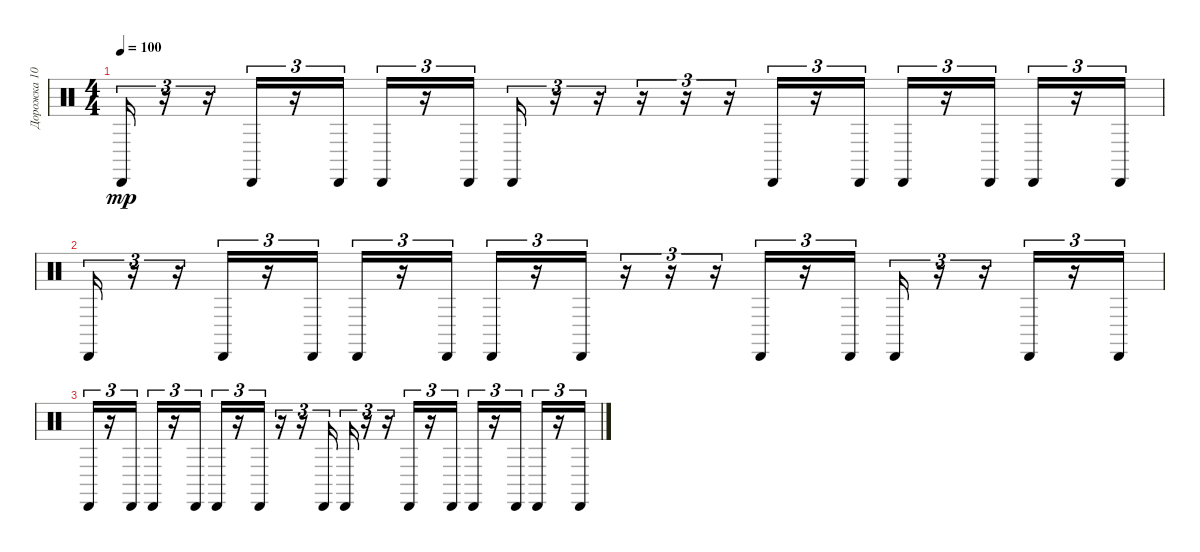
\track ("Дорожка 10" "Дорожка 10") {instrument percussion}
\staff {score}
\articulation defaults
\ts (4 4)
\tempo 100
\clef neutral
\ks c "Cabasa (hit)".16{tu (3 2) dy mp}
r.16{tu (3 2)} r.16{tu (3 2)} "Cabasa (hit)".16{tu (3 2)} r.16{tu (3 2)} "Cabasa (hit)".16{tu (3 2)} "Cabasa (hit)".16{tu (3 2)} r.16{tu (3 2)} "Cabasa (hit)".16{tu (3 2)} "Cabasa (hit)".16{tu (3 2)} r.16{tu (3 2)} r.16{tu (3 2)} r.16{tu (3 2)} r.16{tu (3 2)} r.16{tu (3 2)} "Cabasa (hit)".16{tu (3 2)} r.16{tu (3 2)} "Cabasa (hit)".16{tu (3 2)} "Cabasa (hit)".16{tu (3 2)} r.16{tu (3 2)} "Cabasa (hit)".16{tu (3 2)} "Cabasa (hit)".16{tu (3 2)} r.16{tu (3 2)} "Cabasa (hit)".16{tu (3 2)} |
"Cabasa (hit)".16{tu (3 2)} r.16{tu (3 2)} r.16{tu (3 2)} "Cabasa (hit)".16{tu (3 2)} r.16{tu (3 2)} "Cabasa (hit)".16{tu (3 2)} "Cabasa (hit)".16{tu (3 2)} r.16{tu (3 2)} "Cabasa (hit)".16{tu (3 2)} "Cabasa (hit)".16{tu (3 2)} r.16{tu (3 2)} "Cabasa (hit)".16{tu (3 2)} r.16{tu (3 2)} r.16{tu (3 2)} r.16{tu (3 2)} "Cabasa (hit)".16{tu (3 2)} r.16{tu (3 2)} "Cabasa (hit)".16{tu (3 2)} "Cabasa (hit)".16{tu (3 2)} r.16{tu (3 2)} r.16{tu (3 2)} "Cabasa (hit)".16{tu (3 2)} r.16{tu (3 2)} "Cabasa (hit)".16{tu (3 2)} |
"Cabasa (hit)".16{tu (3 2)} r.16{tu (3 2)} "Cabasa (hit)".16{tu (3 2)} "Cabasa (hit)".16{tu (3 2)} r.16{tu (3 2)} "Cabasa (hit)".16{tu (3 2)} "Cabasa (hit)".16{tu (3 2)} r.16{tu (3 2)} "Cabasa (hit)".16{tu (3 2)} r.16{tu (3 2)} r.16{tu (3 2)} "Cabasa (hit)".16{tu (3 2)} "Cabasa (hit)".16{tu (3 2)} r.16{tu (3 2)} r.16{tu (3 2)} "Cabasa (hit)".16{tu (3 2)} r.16{tu (3 2)} "Cabasa (hit)".16{tu (3 2)} "Cabasa (hit)".16{tu (3 2)} r.16{tu (3 2)} "Cabasa (hit)".16{tu (3 2)} "Cabasa (hit)".16{tu (3 2)} r.16{tu (3 2)} "Cabasa (hit)".16{tu (3 2)}
